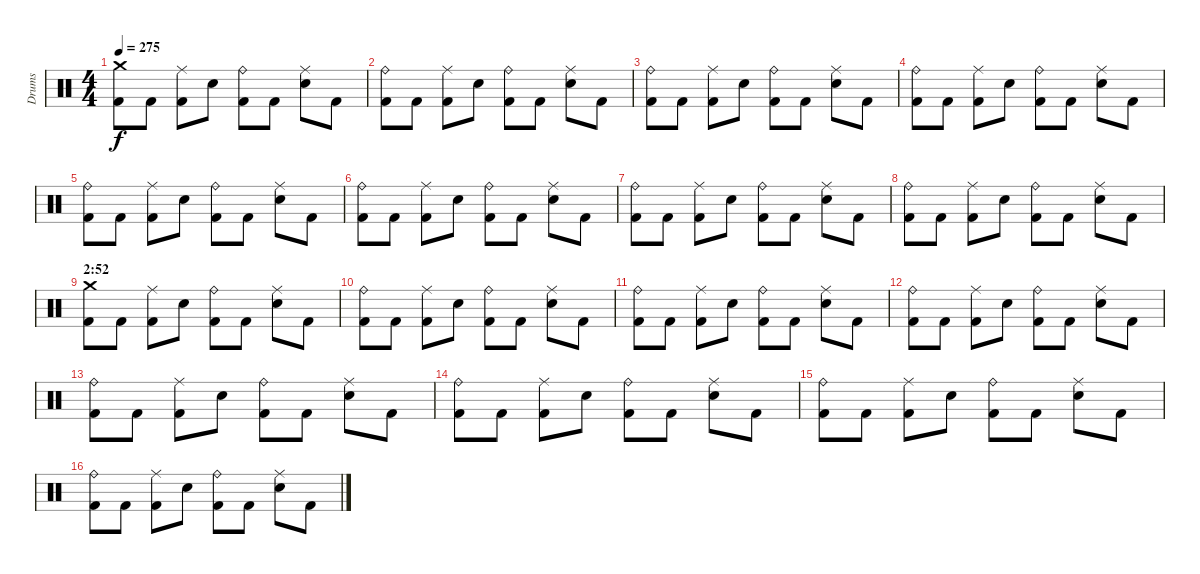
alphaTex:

\track ("Drums" "Drums") {instrument percussion}
\staff {score}
\articulation defaults
\ts (4 4)
\tempo 275
\clef neutral
\ks c
("Crash medium (hit)" "Kick (hit) 2").8{dy f} "Kick (hit) 2".8 ("Ride (middle)" "Kick (hit) 2").8 "Electric Snare (hit)".8 ("Ride (bell)" "Kick (hit) 2").8 "Kick (hit) 2".8 ("Ride (middle)" "Electric Snare (hit)").8 "Kick (hit) 2".8 |
("Ride (bell)" "Kick (hit) 2").8 "Kick (hit) 2".8 ("Ride (middle)" "Kick (hit) 2").8 "Electric Snare (hit)".8 ("Ride (bell)" "Kick (hit) 2").8 "Kick (hit) 2".8 ("Ride (middle)" "Electric Snare (hit)").8 "Kick (hit) 2".8 |
("Ride (bell)" "Kick (hit) 2").8 "Kick (hit) 2".8 ("Ride (middle)" "Kick (hit) 2").8 "Electric Snare (hit)".8 ("Ride (bell)" "Kick (hit) 2").8 "Kick (hit) 2".8 ("Ride (middle)" "Electric Snare (hit)").8 "Kick (hit) 2".8 |
("Ride (bell)" "Kick (hit) 2").8 "Kick (hit) 2".8 ("Ride (middle)" "Kick (hit) 2").8 "Electric Snare (hit)".8 ("Ride (bell)" "Kick (hit) 2").8 "Kick (hit) 2".8 ("Ride (middle)" "Electric Snare (hit)").8 "Kick (hit) 2".8 |
("Ride (bell)" "Kick (hit) 2").8 "Kick (hit) 2".8 ("Ride (middle)" "Kick (hit) 2").8 "Electric Snare (hit)".8 ("Ride (bell)" "Kick (hit) 2").8 "Kick (hit) 2".8 ("Ride (middle)" "Electric Snare (hit)").8 "Kick (hit) 2".8 |
("Ride (bell)" "Kick (hit) 2").8 "Kick (hit) 2".8 ("Ride (middle)" "Kick (hit) 2").8 "Electric Snare (hit)".8 ("Ride (bell)" "Kick (hit) 2").8 "Kick (hit) 2".8 ("Ride (middle)" "Electric Snare (hit)").8 "Kick (hit) 2".8 |
("Ride (bell)" "Kick (hit) 2").8 "Kick (hit) 2".8 ("Ride (middle)" "Kick (hit) 2").8 "Electric Snare (hit)".8 ("Ride (bell)" "Kick (hit) 2").8 "Kick (hit) 2".8 ("Ride (middle)" "Electric Snare (hit)").8 "Kick (hit) 2".8 |
("Ride (bell)" "Kick (hit) 2").8 "Kick (hit) 2".8 ("Ride (middle)" "Kick (hit) 2").8 "Electric Snare (hit)".8 ("Ride (bell)" "Kick (hit) 2").8 "Kick (hit) 2".8 ("Ride (middle)" "Electric Snare (hit)").8 "Kick (hit) 2".8 |
\section ("" "2:52")
("Crash medium (hit)" "Kick (hit) 2").8 "Kick (hit) 2".8 ("Ride (middle)" "Kick (hit) 2").8 "Electric Snare (hit)".8 ("Ride (bell)" "Kick (hit) 2").8 "Kick (hit) 2".8 ("Ride (middle)" "Electric Snare (hit)").8 "Kick (hit) 2".8 |
("Ride (bell)" "Kick (hit) 2").8 "Kick (hit) 2".8 ("Ride (middle)" "Kick (hit) 2").8 "Electric Snare (hit)".8 ("Ride (bell)" "Kick (hit) 2").8 "Kick (hit) 2".8 ("Ride (middle)" "Electric Snare (hit)").8 "Kick (hit) 2".8 |
("Ride (bell)" "Kick (hit) 2").8 "Kick (hit) 2".8 ("Ride (middle)" "Kick (hit) 2").8 "Electric Snare (hit)".8 ("Ride (bell)" "Kick (hit) 2").8 "Kick (hit) 2".8 ("Ride (middle)" "Electric Snare (hit)").8 "Kick (hit) 2".8 |
("Ride (bell)" "Kick (hit) 2").8 "Kick (hit) 2".8 ("Ride (middle)" "Kick (hit) 2").8 "Electric Snare (hit)".8 ("Ride (bell)" "Kick (hit) 2").8 "Kick (hit) 2".8 ("Ride (middle)" "Electric Snare (hit)").8 "Kick (hit) 2".8 |
("Ride (bell)" "Kick (hit) 2").8 "Kick (hit) 2".8 ("Ride (middle)" "Kick (hit) 2").8 "Electric Snare (hit)".8 ("Ride (bell)" "Kick (hit) 2").8 "Kick (hit) 2".8 ("Ride (middle)" "Electric Snare (hit)").8 "Kick (hit) 2".8 |
("Ride (bell)" "Kick (hit) 2").8 "Kick (hit) 2".8 ("Ride (middle)" "Kick (hit) 2").8 "Electric Snare (hit)".8 ("Ride (bell)" "Kick (hit) 2").8 "Kick (hit) 2".8 ("Ride (middle)" "Electric Snare (hit)").8 "Kick (hit) 2".8 |
("Ride (bell)" "Kick (hit) 2").8 "Kick (hit) 2".8 ("Ride (middle)" "Kick (hit) 2").8 "Electric Snare (hit)".8 ("Ride (bell)" "Kick (hit) 2").8 "Kick (hit) 2".8 ("Ride (middle)" "Electric Snare (hit)").8 "Kick (hit) 2".8 |
("Ride (bell)" "Kick (hit) 2").8 "Kick (hit) 2".8 ("Ride (middle)" "Kick (hit) 2").8 "Electric Snare (hit)".8 ("Ride (bell)" "Kick (hit) 2").8 "Kick (hit) 2".8 ("Ride (middle)" "Electric Snare (hit)").8 "Kick (hit) 2".8
